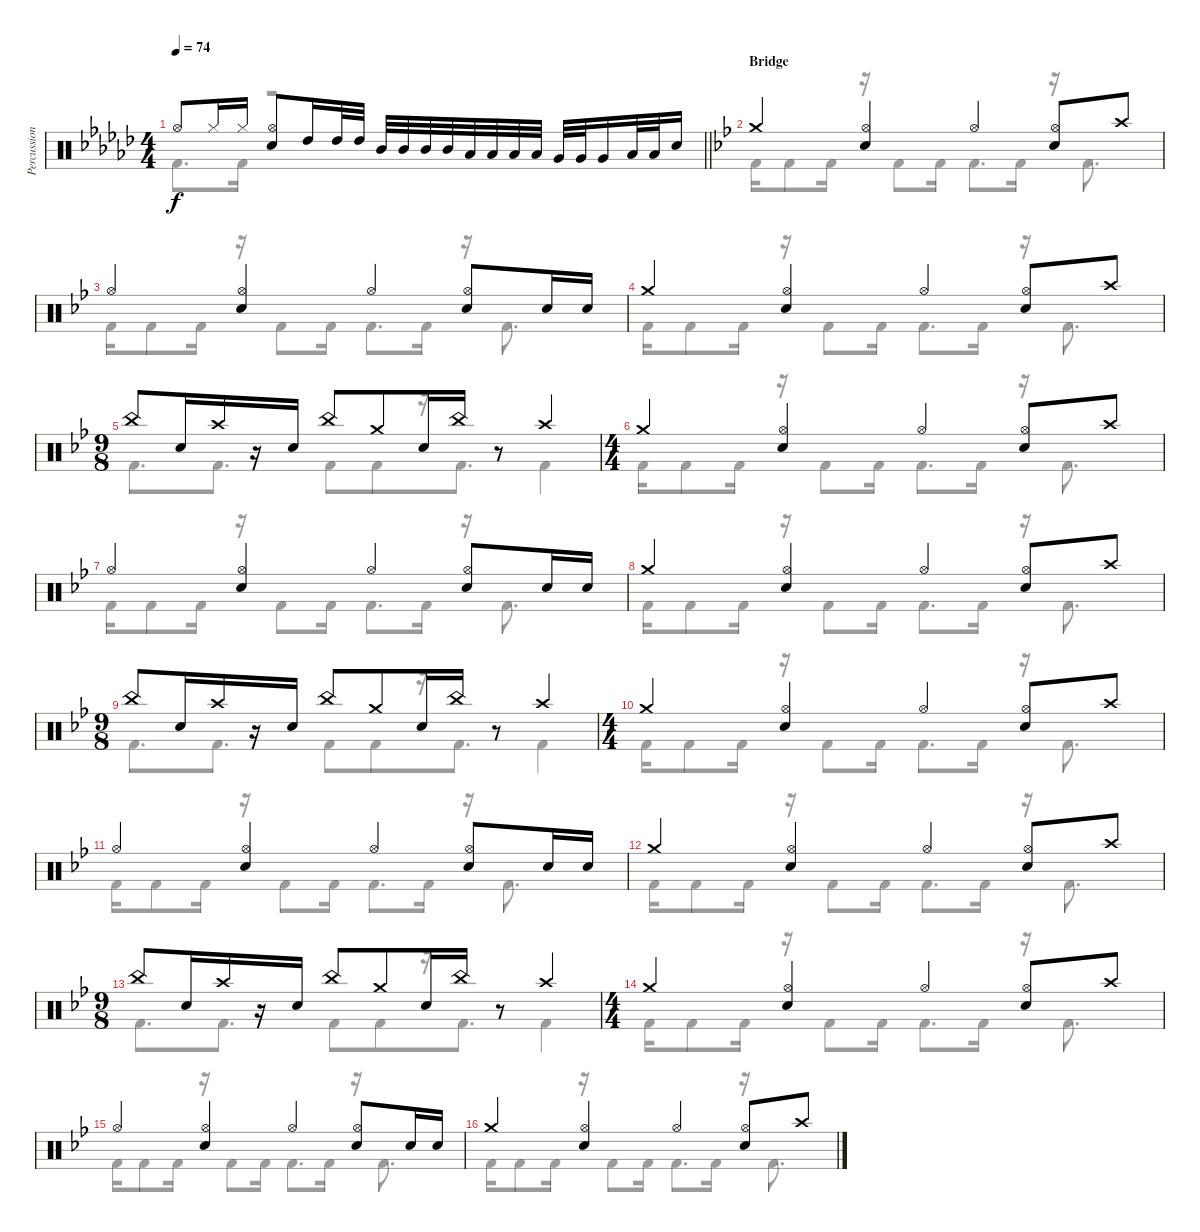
\track ("Percussion" "Percussion") {instrument percussion}
\staff {score}
\articulation defaults
\voice
\ts (4 4)
\tempo 74
\clef neutral
\barLineRight lightlight
\ks ebminor "Hi-Hat (open)".8{dy f} "Hi-Hat (closed)".16 "Hi-Hat (closed)".16
("Hi-Hat (open)" "Snare (hit) 2").8 "High Tom (hit)".16 "High Tom (hit)".32 "High Tom (hit)".32 "Mid Tom (hit)".32 "Mid Tom (hit)".32 "Mid Tom (hit)".32 "Mid Tom (hit)".32 "Low Tom (hit)".32 "Low Tom (hit)".32 "Low Tom (hit)".32 "Low Tom (hit)".32 "Very Low Tom (hit)".32 "Very Low Tom (hit)".32 "Very Low Tom (hit)".16 "Low Floor Tom (hit)".32 "Low Floor Tom (hit)".32 "Snare (hit) 2".16 |
\section ("" "Bridge")
\ks gminor "Crash medium (hit)".4
("Hi-Hat (open)" "Snare (hit) 2").4 "Hi-Hat (open)".4 ("Hi-Hat (open)" "Snare (hit) 2").8 "Crash high (hit)".8 |
"Hi-Hat (open)".4 ("Hi-Hat (open)" "Snare (hit) 2").4 "Hi-Hat (open)".4 ("Hi-Hat (open)" "Snare (hit) 2").8 "Snare (hit) 2".16 "Snare (hit) 2".16 |
"Crash medium (hit)".4 ("Hi-Hat (open)" "Snare (hit) 2").4 "Hi-Hat (open)".4 ("Hi-Hat (open)" "Snare (hit) 2").8 "Crash high (hit)".8 |
\ts (9 8)
"China (hit)".8 "Snare (hit) 2".16 "Crash high (hit)".16 r.16 "Snare (hit) 2".16 "China (hit)".8 "Crash medium (hit)".8 "Snare (hit) 2".16 "China (hit)".16 r.8 "Crash high (hit)".4 |
\ts (4 4)
"Crash medium (hit)".4 ("Hi-Hat (open)" "Snare (hit) 2").4 "Hi-Hat (open)".4 ("Hi-Hat (open)" "Snare (hit) 2").8 "Crash high (hit)".8 |
"Hi-Hat (open)".4 ("Hi-Hat (open)" "Snare (hit) 2").4 "Hi-Hat (open)".4 ("Hi-Hat (open)" "Snare (hit) 2").8 "Snare (hit) 2".16 "Snare (hit) 2".16 |
"Crash medium (hit)".4 ("Hi-Hat (open)" "Snare (hit) 2").4 "Hi-Hat (open)".4 ("Hi-Hat (open)" "Snare (hit) 2").8 "Crash high (hit)".8 |
\ts (9 8)
"China (hit)".8 "Snare (hit) 2".16 "Crash high (hit)".16 r.16 "Snare (hit) 2".16 "China (hit)".8 "Crash medium (hit)".8 "Snare (hit) 2".16 "China (hit)".16 r.8 "Crash high (hit)".4 |
\ts (4 4)
"Crash medium (hit)".4 ("Hi-Hat (open)" "Snare (hit) 2").4 "Hi-Hat (open)".4 ("Hi-Hat (open)" "Snare (hit) 2").8 "Crash high (hit)".8 |
"Hi-Hat (open)".4 ("Hi-Hat (open)" "Snare (hit) 2").4 "Hi-Hat (open)".4 ("Hi-Hat (open)" "Snare (hit) 2").8 "Snare (hit) 2".16 "Snare (hit) 2".16 |
"Crash medium (hit)".4 ("Hi-Hat (open)" "Snare (hit) 2").4 "Hi-Hat (open)".4 ("Hi-Hat (open)" "Snare (hit) 2").8 "Crash high (hit)".8 |
\ts (9 8)
"China (hit)".8 "Snare (hit) 2".16 "Crash high (hit)".16 r.16 "Snare (hit) 2".16 "China (hit)".8 "Crash medium (hit)".8 "Snare (hit) 2".16 "China (hit)".16 r.8 "Crash high (hit)".4 |
\ts (4 4)
"Crash medium (hit)".4 ("Hi-Hat (open)" "Snare (hit) 2").4 "Hi-Hat (open)".4 ("Hi-Hat (open)" "Snare (hit) 2").8 "Crash high (hit)".8 |
"Hi-Hat (open)".4 ("Hi-Hat (open)" "Snare (hit) 2").4 "Hi-Hat (open)".4 ("Hi-Hat (open)" "Snare (hit) 2").8 "Snare (hit) 2".16 "Snare (hit) 2".16 |
"Crash medium (hit)".4 ("Hi-Hat (open)" "Snare (hit) 2").4 "Hi-Hat (open)".4 ("Hi-Hat (open)" "Snare (hit) 2").8 "Crash high (hit)".8
\voice
\clef neutral
\ottava regular
\simile none
\barLineRight lightlight
\ks ebminor "Kick (hit) 2".8{d dy f} "Kick (hit) 2".16
r.2{d} |
\ks gminor "Kick (hit) 2".16 "Kick (hit) 2".8 "Kick (hit) 2".16
r.16 "Kick (hit) 2".8 "Kick (hit) 2".16 "Kick (hit) 2".8{d} "Kick (hit) 2".16 r.16 "Kick (hit) 2".8{d} |
"Kick (hit) 2".16 "Kick (hit) 2".8 "Kick (hit) 2".16 r.16 "Kick (hit) 2".8 "Kick (hit) 2".16 "Kick (hit) 2".8{d} "Kick (hit) 2".16 r.16 "Kick (hit) 2".8{d} |
"Kick (hit) 2".16 "Kick (hit) 2".8 "Kick (hit) 2".16 r.16 "Kick (hit) 2".8 "Kick (hit) 2".16 "Kick (hit) 2".8{d} "Kick (hit) 2".16 r.16 "Kick (hit) 2".8{d} |
"Kick (hit) 2".8{d} "Kick (hit) 2".8{d} "Kick (hit) 2".8 "Kick (hit) 2".8 r.16 "Kick (hit) 2".8{d} "Kick (hit) 2".4 |
"Kick (hit) 2".16 "Kick (hit) 2".8 "Kick (hit) 2".16 r.16 "Kick (hit) 2".8 "Kick (hit) 2".16 "Kick (hit) 2".8{d} "Kick (hit) 2".16 r.16 "Kick (hit) 2".8{d} |
"Kick (hit) 2".16 "Kick (hit) 2".8 "Kick (hit) 2".16 r.16 "Kick (hit) 2".8 "Kick (hit) 2".16 "Kick (hit) 2".8{d} "Kick (hit) 2".16 r.16 "Kick (hit) 2".8{d} |
"Kick (hit) 2".16 "Kick (hit) 2".8 "Kick (hit) 2".16 r.16 "Kick (hit) 2".8 "Kick (hit) 2".16 "Kick (hit) 2".8{d} "Kick (hit) 2".16 r.16 "Kick (hit) 2".8{d} |
"Kick (hit) 2".8{d} "Kick (hit) 2".8{d} "Kick (hit) 2".8 "Kick (hit) 2".8 r.16 "Kick (hit) 2".8{d} "Kick (hit) 2".4 |
"Kick (hit) 2".16 "Kick (hit) 2".8 "Kick (hit) 2".16 r.16 "Kick (hit) 2".8 "Kick (hit) 2".16 "Kick (hit) 2".8{d} "Kick (hit) 2".16 r.16 "Kick (hit) 2".8{d} |
"Kick (hit) 2".16 "Kick (hit) 2".8 "Kick (hit) 2".16 r.16 "Kick (hit) 2".8 "Kick (hit) 2".16 "Kick (hit) 2".8{d} "Kick (hit) 2".16 r.16 "Kick (hit) 2".8{d} |
"Kick (hit) 2".16 "Kick (hit) 2".8 "Kick (hit) 2".16 r.16 "Kick (hit) 2".8 "Kick (hit) 2".16 "Kick (hit) 2".8{d} "Kick (hit) 2".16 r.16 "Kick (hit) 2".8{d} |
"Kick (hit) 2".8{d} "Kick (hit) 2".8{d} "Kick (hit) 2".8 "Kick (hit) 2".8 r.16 "Kick (hit) 2".8{d} "Kick (hit) 2".4 |
"Kick (hit) 2".16 "Kick (hit) 2".8 "Kick (hit) 2".16 r.16 "Kick (hit) 2".8 "Kick (hit) 2".16 "Kick (hit) 2".8{d} "Kick (hit) 2".16 r.16 "Kick (hit) 2".8{d} |
"Kick (hit) 2".16 "Kick (hit) 2".8 "Kick (hit) 2".16 r.16 "Kick (hit) 2".8 "Kick (hit) 2".16 "Kick (hit) 2".8{d} "Kick (hit) 2".16 r.16 "Kick (hit) 2".8{d} |
"Kick (hit) 2".16 "Kick (hit) 2".8 "Kick (hit) 2".16 r.16 "Kick (hit) 2".8 "Kick (hit) 2".16 "Kick (hit) 2".8{d} "Kick (hit) 2".16 r.16 "Kick (hit) 2".8{d}
